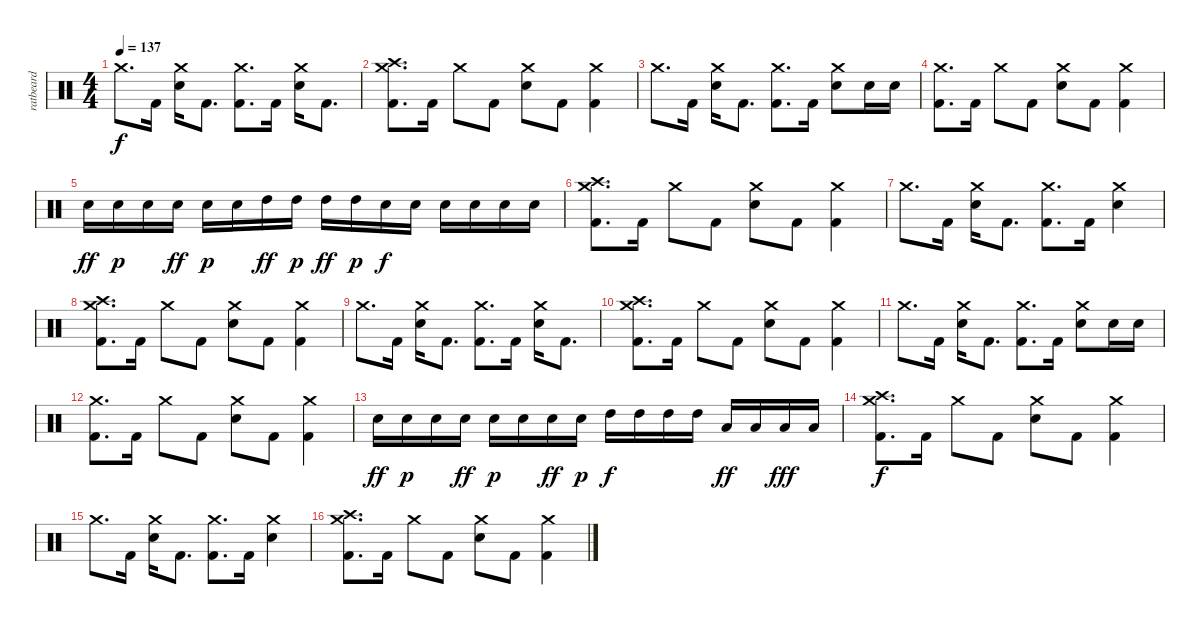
\track ("ratbeard" "ratbeard") {instrument percussion}
\staff {score}
\articulation defaults
\ts (4 4)
\tempo 137
\clef neutral
\ks c "Crash medium (hit)".8{d dy f} "Kick (hit) 2".16
("Crash medium (hit)" "Electric Snare (hit)").16 "Kick (hit) 2".8{d} ("Crash medium (hit)" "Kick (hit) 2").8{d} "Kick (hit) 2".16 ("Crash medium (hit)" "Electric Snare (hit)").16 "Kick (hit) 2".8{d} |
("Crash high (hit)" "Crash medium (hit)" "Kick (hit) 2").8{d} "Kick (hit) 2".16 "Crash medium (hit)".8 "Kick (hit) 2".8 ("Crash medium (hit)" "Electric Snare (hit)").8 "Kick (hit) 2".8 ("Crash medium (hit)" "Kick (hit) 2").4 |
"Crash medium (hit)".8{d} "Kick (hit) 2".16 ("Crash medium (hit)" "Electric Snare (hit)").16 "Kick (hit) 2".8{d} ("Crash medium (hit)" "Kick (hit) 2").8{d} "Kick (hit) 2".16 ("Crash medium (hit)" "Electric Snare (hit)").8 "Electric Snare (hit)".16 "Electric Snare (hit)".16 |
("Crash medium (hit)" "Kick (hit) 2").8{d} "Kick (hit) 2".16 "Crash medium (hit)".8 "Kick (hit) 2".8 ("Crash medium (hit)" "Electric Snare (hit)").8 "Kick (hit) 2".8 ("Crash medium (hit)" "Kick (hit) 2").4 |
"Electric Snare (hit)".16{dy ff} "Electric Snare (hit)".16{dy p} "Electric Snare (hit)".16 "Electric Snare (hit)".16{dy ff} "Electric Snare (hit)".16{dy p} "Electric Snare (hit)".16 "High Tom (hit)".16{dy ff} "High Tom (hit)".16{dy p} "High Tom (hit)".16{dy ff} "High Tom (hit)".16{dy p} "Electric Snare (hit)".16{dy f} "Electric Snare (hit)".16 "Electric Snare (hit)".16 "Electric Snare (hit)".16 "Electric Snare (hit)".16 "Electric Snare (hit)".16 |
("Crash high (hit)" "Crash medium (hit)" "Kick (hit) 2").8{d} "Kick (hit) 2".16 "Crash medium (hit)".8 "Kick (hit) 2".8 ("Crash medium (hit)" "Electric Snare (hit)").8 "Kick (hit) 2".8 ("Crash medium (hit)" "Kick (hit) 2").4 |
"Crash medium (hit)".8{d} "Kick (hit) 2".16 ("Crash medium (hit)" "Electric Snare (hit)").16 "Kick (hit) 2".8{d} ("Crash medium (hit)" "Kick (hit) 2").8{d} "Kick (hit) 2".16 ("Crash medium (hit)" "Electric Snare (hit)").4 |
("Crash high (hit)" "Crash medium (hit)" "Kick (hit) 2").8{d} "Kick (hit) 2".16 "Crash medium (hit)".8 "Kick (hit) 2".8 ("Crash medium (hit)" "Electric Snare (hit)").8 "Kick (hit) 2".8 ("Crash medium (hit)" "Kick (hit) 2").4 |
"Crash medium (hit)".8{d} "Kick (hit) 2".16 ("Crash medium (hit)" "Electric Snare (hit)").16 "Kick (hit) 2".8{d} ("Crash medium (hit)" "Kick (hit) 2").8{d} "Kick (hit) 2".16 ("Crash medium (hit)" "Electric Snare (hit)").16 "Kick (hit) 2".8{d} |
("Crash high (hit)" "Crash medium (hit)" "Kick (hit) 2").8{d} "Kick (hit) 2".16 "Crash medium (hit)".8 "Kick (hit) 2".8 ("Crash medium (hit)" "Electric Snare (hit)").8 "Kick (hit) 2".8 ("Crash medium (hit)" "Kick (hit) 2").4 |
"Crash medium (hit)".8{d} "Kick (hit) 2".16 ("Crash medium (hit)" "Electric Snare (hit)").16 "Kick (hit) 2".8{d} ("Crash medium (hit)" "Kick (hit) 2").8{d} "Kick (hit) 2".16 ("Crash medium (hit)" "Electric Snare (hit)").8 "Electric Snare (hit)".16 "Electric Snare (hit)".16 |
("Crash medium (hit)" "Kick (hit) 2").8{d} "Kick (hit) 2".16 "Crash medium (hit)".8 "Kick (hit) 2".8 ("Crash medium (hit)" "Electric Snare (hit)").8 "Kick (hit) 2".8 ("Crash medium (hit)" "Kick (hit) 2").4 |
"Electric Snare (hit)".16{dy ff} "Electric Snare (hit)".16{dy p} "Electric Snare (hit)".16 "Electric Snare (hit)".16{dy ff} "Electric Snare (hit)".16{dy p} "Electric Snare (hit)".16 "Electric Snare (hit)".16{dy ff} "Electric Snare (hit)".16{dy p} "High Tom (hit)".16{dy f} "High Tom (hit)".16 "High Tom (hit)".16 "High Tom (hit)".16 "Low Floor Tom (hit)".16{dy ff} "Low Floor Tom (hit)".16 "Low Floor Tom (hit)".16{dy fff} "Low Floor Tom (hit)".16 |
("Crash high (hit)" "Crash medium (hit)" "Kick (hit) 2").8{d dy f} "Kick (hit) 2".16 "Crash medium (hit)".8 "Kick (hit) 2".8 ("Crash medium (hit)" "Electric Snare (hit)").8 "Kick (hit) 2".8 ("Crash medium (hit)" "Kick (hit) 2").4 |
"Crash medium (hit)".8{d} "Kick (hit) 2".16 ("Crash medium (hit)" "Electric Snare (hit)").16 "Kick (hit) 2".8{d} ("Crash medium (hit)" "Kick (hit) 2").8{d} "Kick (hit) 2".16 ("Crash medium (hit)" "Electric Snare (hit)").4 |
("Crash high (hit)" "Crash medium (hit)" "Kick (hit) 2").8{d} "Kick (hit) 2".16 "Crash medium (hit)".8 "Kick (hit) 2".8 ("Crash medium (hit)" "Electric Snare (hit)").8 "Kick (hit) 2".8 ("Crash medium (hit)" "Kick (hit) 2").4
